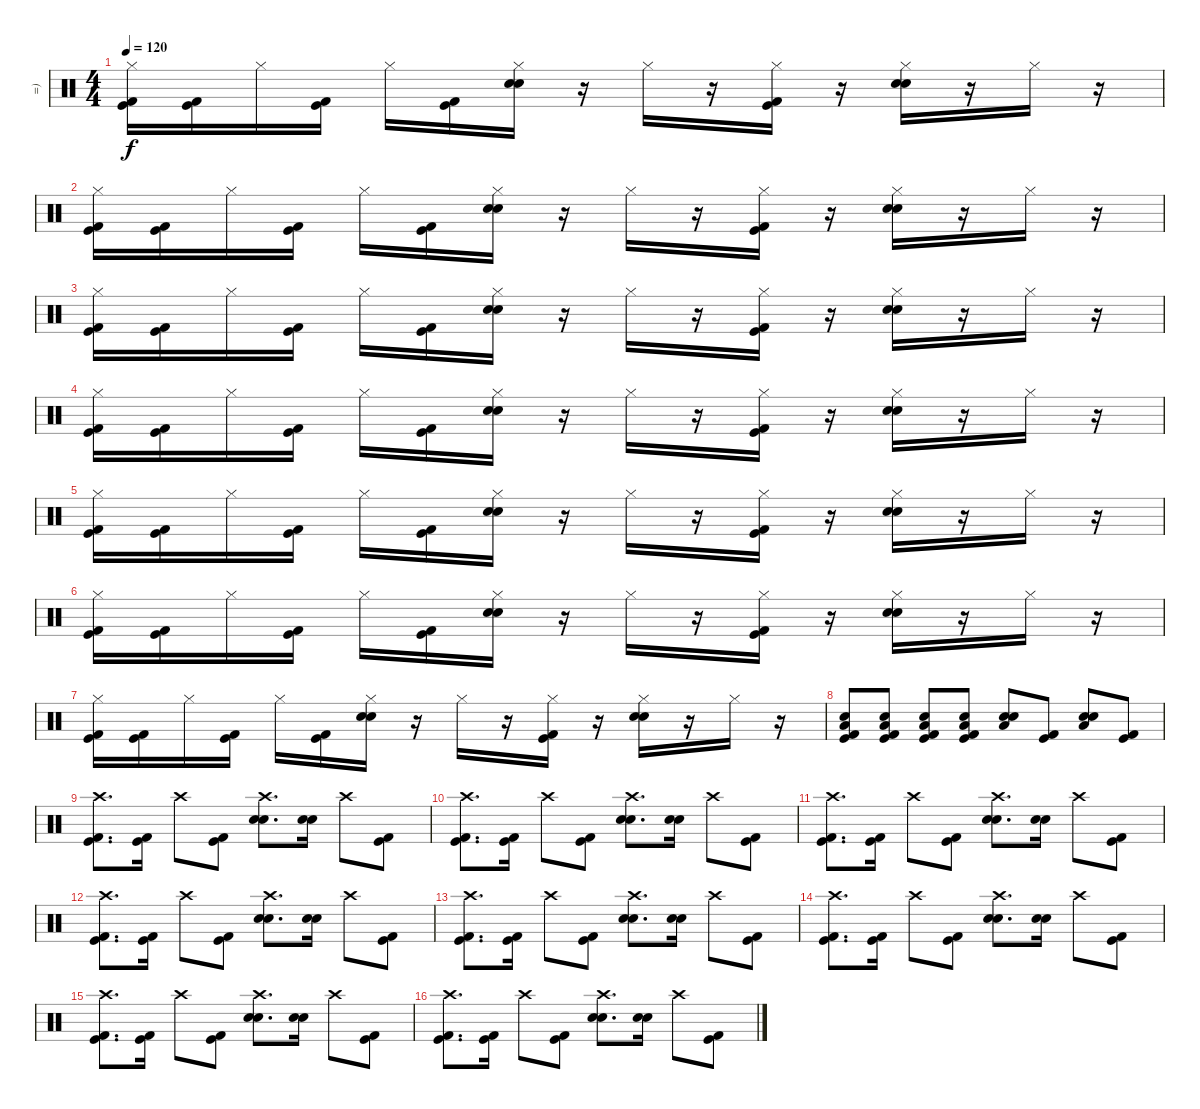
\track ("=)" "=)") {instrument percussion}
\staff {score}
\articulation defaults
\ts (4 4)
\tempo 120
\clef neutral
\ks c
("Hi-Hat (closed)" "Kick (hit)" "Kick (hit) 2").16{dy f} ("Kick (hit)" "Kick (hit) 2").16 "Hi-Hat (closed)".16 ("Kick (hit)" "Kick (hit) 2").16 "Hi-Hat (closed)".16 ("Kick (hit)" "Kick (hit) 2").16 ("Hi-Hat (closed)" "Snare (hit) 2" "Electric Snare (hit)").16 r.16 "Hi-Hat (closed)".16 r.16 ("Hi-Hat (closed)" "Kick (hit)" "Kick (hit) 2").16 r.16 ("Hi-Hat (closed)" "Snare (hit) 2" "Electric Snare (hit)").16 r.16 "Hi-Hat (closed)".16 r.16 |
("Hi-Hat (closed)" "Kick (hit)" "Kick (hit) 2").16 ("Kick (hit)" "Kick (hit) 2").16 "Hi-Hat (closed)".16 ("Kick (hit)" "Kick (hit) 2").16 "Hi-Hat (closed)".16 ("Kick (hit)" "Kick (hit) 2").16 ("Hi-Hat (closed)" "Snare (hit) 2" "Electric Snare (hit)").16 r.16 "Hi-Hat (closed)".16 r.16 ("Hi-Hat (closed)" "Kick (hit)" "Kick (hit) 2").16 r.16 ("Hi-Hat (closed)" "Snare (hit) 2" "Electric Snare (hit)").16 r.16 "Hi-Hat (closed)".16 r.16 |
("Hi-Hat (closed)" "Kick (hit)" "Kick (hit) 2").16 ("Kick (hit)" "Kick (hit) 2").16 "Hi-Hat (closed)".16 ("Kick (hit)" "Kick (hit) 2").16 "Hi-Hat (closed)".16 ("Kick (hit)" "Kick (hit) 2").16 ("Hi-Hat (closed)" "Snare (hit) 2" "Electric Snare (hit)").16 r.16 "Hi-Hat (closed)".16 r.16 ("Hi-Hat (closed)" "Kick (hit)" "Kick (hit) 2").16 r.16 ("Hi-Hat (closed)" "Snare (hit) 2" "Electric Snare (hit)").16 r.16 "Hi-Hat (closed)".16 r.16 |
("Hi-Hat (closed)" "Kick (hit)" "Kick (hit) 2").16 ("Kick (hit)" "Kick (hit) 2").16 "Hi-Hat (closed)".16 ("Kick (hit)" "Kick (hit) 2").16 "Hi-Hat (closed)".16 ("Kick (hit)" "Kick (hit) 2").16 ("Hi-Hat (closed)" "Snare (hit) 2" "Electric Snare (hit)").16 r.16 "Hi-Hat (closed)".16 r.16 ("Hi-Hat (closed)" "Kick (hit)" "Kick (hit) 2").16 r.16 ("Hi-Hat (closed)" "Snare (hit) 2" "Electric Snare (hit)").16 r.16 "Hi-Hat (closed)".16 r.16 |
("Hi-Hat (closed)" "Kick (hit)" "Kick (hit) 2").16 ("Kick (hit)" "Kick (hit) 2").16 "Hi-Hat (closed)".16 ("Kick (hit)" "Kick (hit) 2").16 "Hi-Hat (closed)".16 ("Kick (hit)" "Kick (hit) 2").16 ("Hi-Hat (closed)" "Snare (hit) 2" "Electric Snare (hit)").16 r.16 "Hi-Hat (closed)".16 r.16 ("Hi-Hat (closed)" "Kick (hit)" "Kick (hit) 2").16 r.16 ("Hi-Hat (closed)" "Snare (hit) 2" "Electric Snare (hit)").16 r.16 "Hi-Hat (closed)".16 r.16 |
("Hi-Hat (closed)" "Kick (hit)" "Kick (hit) 2").16 ("Kick (hit)" "Kick (hit) 2").16 "Hi-Hat (closed)".16 ("Kick (hit)" "Kick (hit) 2").16 "Hi-Hat (closed)".16 ("Kick (hit)" "Kick (hit) 2").16 ("Hi-Hat (closed)" "Snare (hit) 2" "Electric Snare (hit)").16 r.16 "Hi-Hat (closed)".16 r.16 ("Hi-Hat (closed)" "Kick (hit)" "Kick (hit) 2").16 r.16 ("Hi-Hat (closed)" "Snare (hit) 2" "Electric Snare (hit)").16 r.16 "Hi-Hat (closed)".16 r.16 |
("Hi-Hat (closed)" "Kick (hit)" "Kick (hit) 2").16 ("Kick (hit)" "Kick (hit) 2").16 "Hi-Hat (closed)".16 ("Kick (hit)" "Kick (hit) 2").16 "Hi-Hat (closed)".16 ("Kick (hit)" "Kick (hit) 2").16 ("Hi-Hat (closed)" "Snare (hit) 2" "Electric Snare (hit)").16 r.16 "Hi-Hat (closed)".16 r.16 ("Hi-Hat (closed)" "Kick (hit)" "Kick (hit) 2").16 r.16 ("Hi-Hat (closed)" "Snare (hit) 2" "Electric Snare (hit)").16 r.16 "Hi-Hat (closed)".16 r.16 |
("Low Floor Tom (hit)" "Electric Snare (hit)" "Kick (hit)" "Kick (hit) 2").8 ("Low Floor Tom (hit)" "Electric Snare (hit)" "Kick (hit)" "Kick (hit) 2").8 ("Low Floor Tom (hit)" "Electric Snare (hit)" "Kick (hit)" "Kick (hit) 2").8 ("Low Floor Tom (hit)" "Electric Snare (hit)" "Kick (hit)" "Kick (hit) 2").8 ("Low Floor Tom (hit)" "Snare (hit) 2" "Electric Snare (hit)").8 ("Kick (hit)" "Kick (hit) 2").8 ("Low Floor Tom (hit)" "Snare (hit) 2" "Electric Snare (hit)").8 ("Kick (hit)" "Kick (hit) 2").8 |
("Crash high (hit)" "Kick (hit)" "Kick (hit) 2").8{d} ("Kick (hit)" "Kick (hit) 2").16 "Crash high (hit)".8 ("Kick (hit)" "Kick (hit) 2").8 ("Crash high (hit)" "Snare (hit) 2" "Electric Snare (hit)").8{d} ("Snare (hit) 2" "Electric Snare (hit)").16 "Crash high (hit)".8 ("Kick (hit)" "Kick (hit) 2").8 |
("Crash high (hit)" "Kick (hit)" "Kick (hit) 2").8{d} ("Kick (hit)" "Kick (hit) 2").16 "Crash high (hit)".8 ("Kick (hit)" "Kick (hit) 2").8 ("Crash high (hit)" "Snare (hit) 2" "Electric Snare (hit)").8{d} ("Snare (hit) 2" "Electric Snare (hit)").16 "Crash high (hit)".8 ("Kick (hit)" "Kick (hit) 2").8 |
("Crash high (hit)" "Kick (hit)" "Kick (hit) 2").8{d} ("Kick (hit)" "Kick (hit) 2").16 "Crash high (hit)".8 ("Kick (hit)" "Kick (hit) 2").8 ("Crash high (hit)" "Snare (hit) 2" "Electric Snare (hit)").8{d} ("Snare (hit) 2" "Electric Snare (hit)").16 "Crash high (hit)".8 ("Kick (hit)" "Kick (hit) 2").8 |
("Crash high (hit)" "Kick (hit)" "Kick (hit) 2").8{d} ("Kick (hit)" "Kick (hit) 2").16 "Crash high (hit)".8 ("Kick (hit)" "Kick (hit) 2").8 ("Crash high (hit)" "Snare (hit) 2" "Electric Snare (hit)").8{d} ("Snare (hit) 2" "Electric Snare (hit)").16 "Crash high (hit)".8 ("Kick (hit)" "Kick (hit) 2").8 |
("Crash high (hit)" "Kick (hit)" "Kick (hit) 2").8{d} ("Kick (hit)" "Kick (hit) 2").16 "Crash high (hit)".8 ("Kick (hit)" "Kick (hit) 2").8 ("Crash high (hit)" "Snare (hit) 2" "Electric Snare (hit)").8{d} ("Snare (hit) 2" "Electric Snare (hit)").16 "Crash high (hit)".8 ("Kick (hit)" "Kick (hit) 2").8 |
("Crash high (hit)" "Kick (hit)" "Kick (hit) 2").8{d} ("Kick (hit)" "Kick (hit) 2").16 "Crash high (hit)".8 ("Kick (hit)" "Kick (hit) 2").8 ("Crash high (hit)" "Snare (hit) 2" "Electric Snare (hit)").8{d} ("Snare (hit) 2" "Electric Snare (hit)").16 "Crash high (hit)".8 ("Kick (hit)" "Kick (hit) 2").8 |
("Crash high (hit)" "Kick (hit)" "Kick (hit) 2").8{d} ("Kick (hit)" "Kick (hit) 2").16 "Crash high (hit)".8 ("Kick (hit)" "Kick (hit) 2").8 ("Crash high (hit)" "Snare (hit) 2" "Electric Snare (hit)").8{d} ("Snare (hit) 2" "Electric Snare (hit)").16 "Crash high (hit)".8 ("Kick (hit)" "Kick (hit) 2").8 |
("Crash high (hit)" "Kick (hit)" "Kick (hit) 2").8{d} ("Kick (hit)" "Kick (hit) 2").16 "Crash high (hit)".8 ("Kick (hit)" "Kick (hit) 2").8 ("Crash high (hit)" "Snare (hit) 2" "Electric Snare (hit)").8{d} ("Snare (hit) 2" "Electric Snare (hit)").16 "Crash high (hit)".8 ("Kick (hit)" "Kick (hit) 2").8
